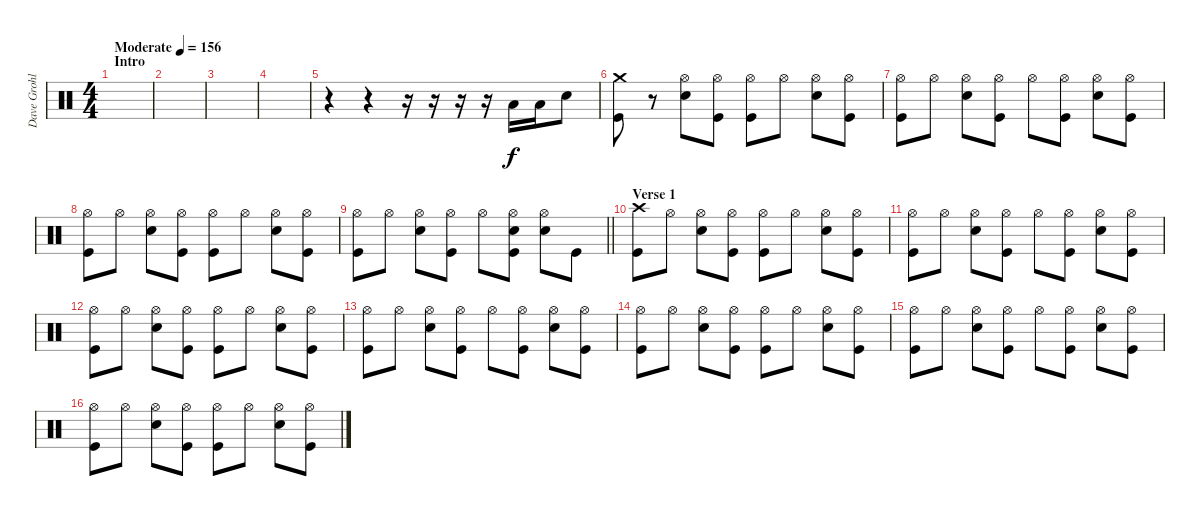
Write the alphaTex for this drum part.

\track ("Dave Grohl - Drums" "Dave Grohl") {instrument percussion}
\staff {score}
\articulation defaults
\ts (4 4)
\section ("" "Intro")
\tempo (156 "Moderate")
\clef neutral
\ks c
|
|
|
|
r.4 r.4 r.16 r.16 r.16 r.16 "Low Tom (hit)".16 "Low Tom (hit)".16 "Snare (hit) 2".8 |
("Crash medium (hit)" "Kick (hit)").8 r.8 ("Hi-Hat (open)" "Snare (hit) 2").8 ("Hi-Hat (open)" "Kick (hit)").8 ("Hi-Hat (open)" "Kick (hit)").8 "Hi-Hat (open)".8 ("Hi-Hat (open)" "Snare (hit) 2").8 ("Hi-Hat (open)" "Kick (hit)").8 |
("Hi-Hat (open)" "Kick (hit)").8 "Hi-Hat (open)".8 ("Hi-Hat (open)" "Snare (hit) 2").8 ("Hi-Hat (open)" "Kick (hit)").8 "Hi-Hat (open)".8 ("Hi-Hat (open)" "Kick (hit)").8 ("Hi-Hat (open)" "Snare (hit) 2").8 ("Hi-Hat (open)" "Kick (hit)").8 |
("Hi-Hat (open)" "Kick (hit)").8 "Hi-Hat (open)".8 ("Hi-Hat (open)" "Snare (hit) 2").8 ("Hi-Hat (open)" "Kick (hit)").8 ("Hi-Hat (open)" "Kick (hit)").8 "Hi-Hat (open)".8 ("Hi-Hat (open)" "Snare (hit) 2").8 ("Hi-Hat (open)" "Kick (hit)").8 |
\barLineRight lightlight
("Hi-Hat (open)" "Kick (hit)").8 "Hi-Hat (open)".8 ("Hi-Hat (open)" "Snare (hit) 2").8 ("Hi-Hat (open)" "Kick (hit)").8 "Hi-Hat (open)".8 ("Hi-Hat (open)" "Snare (hit) 2" "Kick (hit)").8 ("Hi-Hat (open)" "Snare (hit) 2").8 "Kick (hit)".8 |
\section ("" "Verse 1")
("Crash high (hit)" "Kick (hit)").8 "Hi-Hat (open)".8 ("Hi-Hat (open)" "Snare (hit) 2").8 ("Hi-Hat (open)" "Kick (hit)").8 ("Hi-Hat (open)" "Kick (hit)").8 "Hi-Hat (open)".8 ("Hi-Hat (open)" "Snare (hit) 2").8 ("Hi-Hat (open)" "Kick (hit)").8 |
("Hi-Hat (open)" "Kick (hit)").8 "Hi-Hat (open)".8 ("Hi-Hat (open)" "Snare (hit) 2").8 ("Hi-Hat (open)" "Kick (hit)").8 "Hi-Hat (open)".8 ("Hi-Hat (open)" "Kick (hit)").8 ("Hi-Hat (open)" "Snare (hit) 2").8 ("Hi-Hat (open)" "Kick (hit)").8 |
("Hi-Hat (open)" "Kick (hit)").8 "Hi-Hat (open)".8 ("Hi-Hat (open)" "Snare (hit) 2").8 ("Hi-Hat (open)" "Kick (hit)").8 ("Hi-Hat (open)" "Kick (hit)").8 "Hi-Hat (open)".8 ("Hi-Hat (open)" "Snare (hit) 2").8 ("Hi-Hat (open)" "Kick (hit)").8 |
("Hi-Hat (open)" "Kick (hit)").8 "Hi-Hat (open)".8 ("Hi-Hat (open)" "Snare (hit) 2").8 ("Hi-Hat (open)" "Kick (hit)").8 "Hi-Hat (open)".8 ("Hi-Hat (open)" "Kick (hit)").8 ("Hi-Hat (open)" "Snare (hit) 2").8 ("Hi-Hat (open)" "Kick (hit)").8 |
("Hi-Hat (open)" "Kick (hit)").8 "Hi-Hat (open)".8 ("Hi-Hat (open)" "Snare (hit) 2").8 ("Hi-Hat (open)" "Kick (hit)").8 ("Hi-Hat (open)" "Kick (hit)").8 "Hi-Hat (open)".8 ("Hi-Hat (open)" "Snare (hit) 2").8 ("Hi-Hat (open)" "Kick (hit)").8 |
("Hi-Hat (open)" "Kick (hit)").8 "Hi-Hat (open)".8 ("Hi-Hat (open)" "Snare (hit) 2").8 ("Hi-Hat (open)" "Kick (hit)").8 "Hi-Hat (open)".8 ("Hi-Hat (open)" "Kick (hit)").8 ("Hi-Hat (open)" "Snare (hit) 2").8 ("Hi-Hat (open)" "Kick (hit)").8 |
("Hi-Hat (open)" "Kick (hit)").8 "Hi-Hat (open)".8 ("Hi-Hat (open)" "Snare (hit) 2").8 ("Hi-Hat (open)" "Kick (hit)").8 ("Hi-Hat (open)" "Kick (hit)").8 "Hi-Hat (open)".8 ("Hi-Hat (open)" "Snare (hit) 2").8 ("Hi-Hat (open)" "Kick (hit)").8
